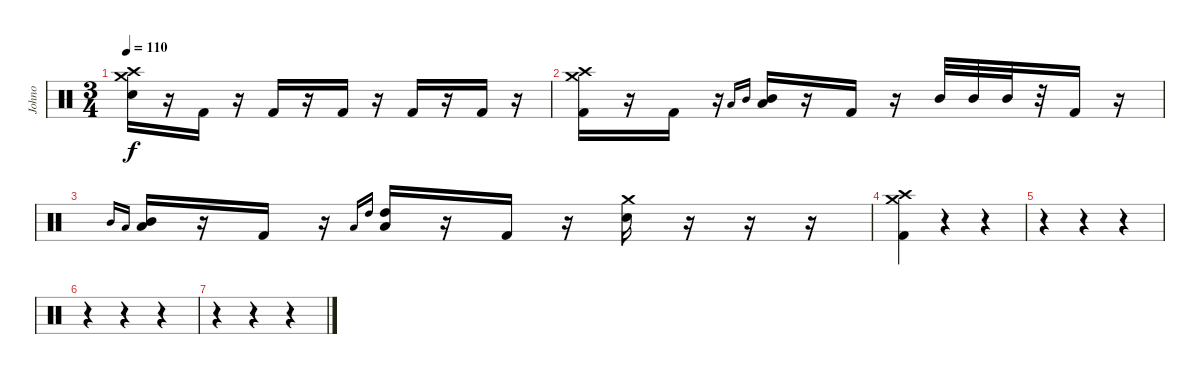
\track ("Johno" "Johno") {instrument percussion}
\staff {score}
\articulation defaults
\ts (3 4)
\tempo 110
\clef neutral
\ks c
("Crash high (hit)" "Crash medium (hit)" "Electric Snare (hit)").16{dy f} r.16 "Kick (hit) 2".16 r.16 "Kick (hit) 2".16 r.16 "Kick (hit) 2".16 r.16 "Kick (hit) 2".16 r.16 "Kick (hit) 2".16 r.16 |
("Crash high (hit)" "Crash medium (hit)" "Kick (hit) 2").16 r.16 "Kick (hit) 2".16 r.16 "Low Floor Tom (hit)".16{gr onbeat} "Mid Tom (hit)".16{gr onbeat} ("Low Floor Tom (hit)" "Mid Tom (hit)").16 r.16 "Kick (hit) 2".16 r.16 "Mid Tom (hit)".32 "Mid Tom (hit)".32 "Mid Tom (hit)".32 r.32 "Kick (hit) 2".16 r.16 |
"Mid Tom (hit)".16{gr onbeat} "Low Tom (hit)".16{gr onbeat} ("Mid Tom (hit)" "Low Floor Tom (hit)").16 r.16 "Kick (hit) 2".16 r.16 "Low Floor Tom (hit)".16{gr onbeat} "High Tom (hit)".16{gr onbeat} ("Low Floor Tom (hit)" "High Tom (hit)").16 r.16 "Kick (hit) 2".16 r.16 ("Crash medium (hit)" "Electric Snare (hit)").16 r.16 r.16 r.16 |
("Crash medium (hit)" "Crash high (hit)" "Kick (hit) 2").4 r.4 r.4 |
r.4 r.4 r.4 |
r.4 r.4 r.4 |
r.4 r.4 r.4
